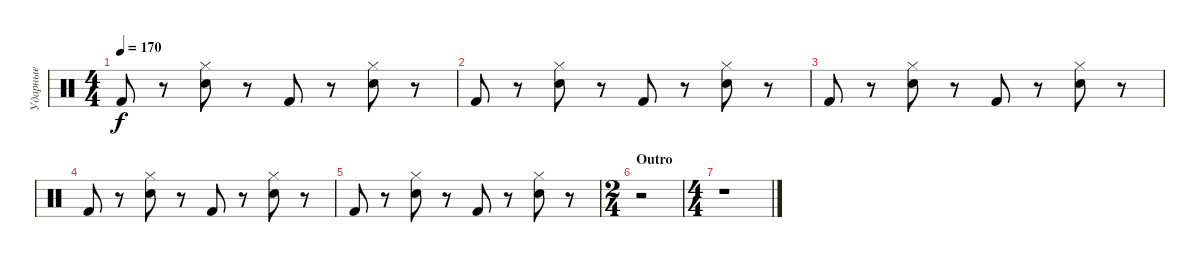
\track ("Ударные" "Ударные") {instrument percussion}
\staff {score}
\articulation defaults
\ts (4 4)
\tempo 170
\clef neutral
\ks c "Kick (hit) 2".8{dy f}
r.8 ("Hi-Hat (closed)" "Electric Snare (hit)").8 r.8 "Kick (hit) 2".8 r.8 ("Hi-Hat (closed)" "Electric Snare (hit)").8 r.8 |
"Kick (hit) 2".8 r.8 ("Hi-Hat (closed)" "Electric Snare (hit)").8 r.8 "Kick (hit) 2".8 r.8 ("Hi-Hat (closed)" "Electric Snare (hit)").8 r.8 |
"Kick (hit) 2".8 r.8 ("Hi-Hat (closed)" "Electric Snare (hit)").8 r.8 "Kick (hit) 2".8 r.8 ("Hi-Hat (closed)" "Electric Snare (hit)").8 r.8 |
"Kick (hit) 2".8 r.8 ("Hi-Hat (closed)" "Electric Snare (hit)").8 r.8 "Kick (hit) 2".8 r.8 ("Hi-Hat (closed)" "Electric Snare (hit)").8 r.8 |
"Kick (hit) 2".8 r.8 ("Hi-Hat (closed)" "Electric Snare (hit)").8 r.8 "Kick (hit) 2".8 r.8 ("Hi-Hat (closed)" "Electric Snare (hit)").8 r.8 |
\ts (2 4)
\section ("" "Outro")
r.2 |
\ts (4 4)
r.1
